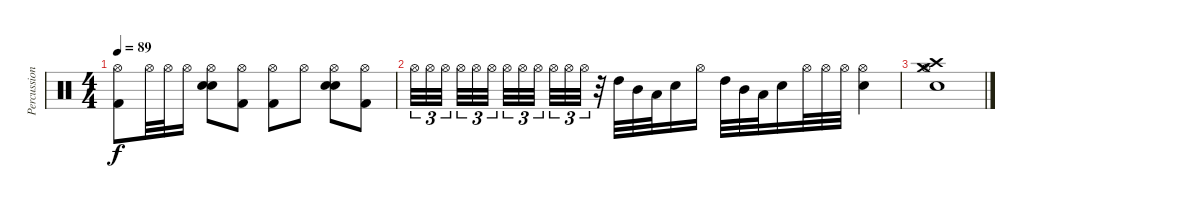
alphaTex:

\track ("Percussions" "Percussion") {instrument percussion}
\staff {score}
\articulation defaults
\ts (4 4)
\tempo 89
\clef neutral
\ks c
("Hi-Hat (open)" "Kick (hit) 2").8{dy f} "Hi-Hat (open)".32 "Hi-Hat (open)".32 "Hi-Hat (open)".16 ("Snare (hit) 2" "Electric Snare (hit)" "Hi-Hat (open)").8 ("Hi-Hat (open)" "Kick (hit) 2").8 ("Hi-Hat (open)" "Kick (hit) 2").8 "Hi-Hat (open)".8 ("Snare (hit) 2" "Electric Snare (hit)" "Hi-Hat (open)").8 ("Hi-Hat (open)" "Kick (hit) 2").8 |
"Hi-Hat (open)".32{tu (3 2)} "Hi-Hat (open)".32{tu (3 2)} "Hi-Hat (open)".32{tu (3 2)} "Hi-Hat (open)".32{tu (3 2)} "Hi-Hat (open)".32{tu (3 2)} "Hi-Hat (open)".32{tu (3 2)} "Hi-Hat (open)".32{tu (3 2)} "Hi-Hat (open)".32{tu (3 2)} "Hi-Hat (open)".32{tu (3 2)} "Hi-Hat (open)".32{tu (3 2)} "Hi-Hat (open)".32{tu (3 2)} "Hi-Hat (open)".32{tu (3 2)} r.32 "High Tom (hit)".32 "Mid Tom (hit)".32 "Low Tom (hit)".32 "Electric Snare (hit)".16 "Hi-Hat (open)".16 "High Tom (hit)".32 "Mid Tom (hit)".32 "Low Tom (hit)".32 "Electric Snare (hit)".16 "Hi-Hat (open)".32 "Hi-Hat (open)".32 "Hi-Hat (open)".32 ("Hi-Hat (open)" "Electric Snare (hit)").4 |
("Crash medium (hit)" "Crash high (hit)" "Electric Snare (hit)" "Hi-Hat (open)").1
